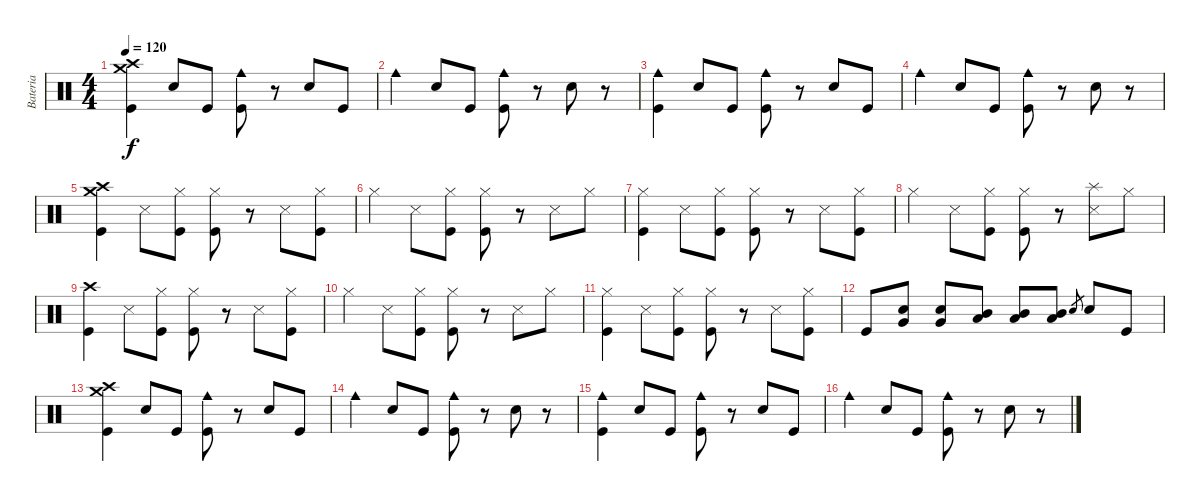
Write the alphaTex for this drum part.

\track ("Bateria" "Bateria") {instrument percussion}
\staff {score}
\articulation defaults
\ts (4 4)
\tempo 120
\clef neutral
\ks c
("Crash medium (hit)" "Crash high (hit)" "Kick (hit)").4{dy f} "Electric Snare (hit)".8 "Kick (hit)".8 ("Cowbell medium (hit)" "Kick (hit)").8 r.8 "Electric Snare (hit)".8 "Kick (hit)".8 |
"Cowbell medium (hit)".4 "Electric Snare (hit)".8 "Kick (hit)".8 ("Cowbell medium (hit)" "Kick (hit)").8 r.8 "Electric Snare (hit)".8 r.8 |
("Cowbell medium (hit)" "Kick (hit)").4 "Electric Snare (hit)".8 "Kick (hit)".8 ("Cowbell medium (hit)" "Kick (hit)").8 r.8 "Electric Snare (hit)".8 "Kick (hit)".8 |
"Cowbell medium (hit)".4 "Electric Snare (hit)".8 "Kick (hit)".8 ("Cowbell medium (hit)" "Kick (hit)").8 r.8 "Electric Snare (hit)".8 r.8 |
("Crash high (hit)" "Crash medium (hit)" "Kick (hit)").4 "Snare (side stick) 3".8 ("Hi-Hat (closed)" "Kick (hit)").8 ("Hi-Hat (closed)" "Kick (hit)").8 r.8 "Snare (side stick) 3".8 ("Hi-Hat (closed)" "Kick (hit)").8 |
"Hi-Hat (closed)".4 "Snare (side stick) 3".8 ("Hi-Hat (closed)" "Kick (hit)").8 ("Hi-Hat (closed)" "Kick (hit)").8 r.8 "Snare (side stick) 3".8 "Hi-Hat (closed)".8 |
("Hi-Hat (closed)" "Kick (hit)").4 "Snare (side stick) 3".8 ("Hi-Hat (closed)" "Kick (hit)").8 ("Hi-Hat (closed)" "Kick (hit)").8 r.8 "Snare (side stick) 3".8 ("Hi-Hat (closed)" "Kick (hit)").8 |
"Hi-Hat (closed)".4 "Snare (side stick) 3".8 ("Hi-Hat (closed)" "Kick (hit)").8 ("Hi-Hat (closed)" "Kick (hit)").8 r.8 ("Splash (hit)" "Snare (side stick) 3").8 "Hi-Hat (closed)".8 |
("Crash high (hit)" "Kick (hit)").4 "Snare (side stick) 3".8 ("Hi-Hat (closed)" "Kick (hit)").8 ("Hi-Hat (closed)" "Kick (hit)").8 r.8 "Snare (side stick) 3".8 ("Hi-Hat (closed)" "Kick (hit)").8 |
"Hi-Hat (closed)".4 "Snare (side stick) 3".8 ("Hi-Hat (closed)" "Kick (hit)").8 ("Hi-Hat (closed)" "Kick (hit)").8 r.8 "Snare (side stick) 3".8 "Hi-Hat (closed)".8 |
("Hi-Hat (closed)" "Kick (hit)").4 "Snare (side stick) 3".8 ("Hi-Hat (closed)" "Kick (hit)").8 ("Hi-Hat (closed)" "Kick (hit)").8 r.8 "Snare (side stick) 3".8 ("Hi-Hat (closed)" "Kick (hit)").8 |
"Kick (hit)".8 ("Very Low Tom (hit)" "Electric Snare (hit)").8 ("Very Low Tom (hit)" "Electric Snare (hit)").8 ("Low Tom (hit)" "Mid Tom (hit)").8 ("Low Tom (hit)" "Mid Tom (hit)").8 ("Low Tom (hit)" "Mid Tom (hit)").8 "Electric Snare (hit)".8{gr} "Electric Snare (hit)".8 "Kick (hit)".8 |
("Crash medium (hit)" "Crash high (hit)" "Kick (hit)").4 "Electric Snare (hit)".8 "Kick (hit)".8 ("Cowbell medium (hit)" "Kick (hit)").8 r.8 "Electric Snare (hit)".8 "Kick (hit)".8 |
"Cowbell medium (hit)".4 "Electric Snare (hit)".8 "Kick (hit)".8 ("Cowbell medium (hit)" "Kick (hit)").8 r.8 "Electric Snare (hit)".8 r.8 |
("Cowbell medium (hit)" "Kick (hit)").4 "Electric Snare (hit)".8 "Kick (hit)".8 ("Cowbell medium (hit)" "Kick (hit)").8 r.8 "Electric Snare (hit)".8 "Kick (hit)".8 |
"Cowbell medium (hit)".4 "Electric Snare (hit)".8 "Kick (hit)".8 ("Cowbell medium (hit)" "Kick (hit)").8 r.8 "Electric Snare (hit)".8 r.8
